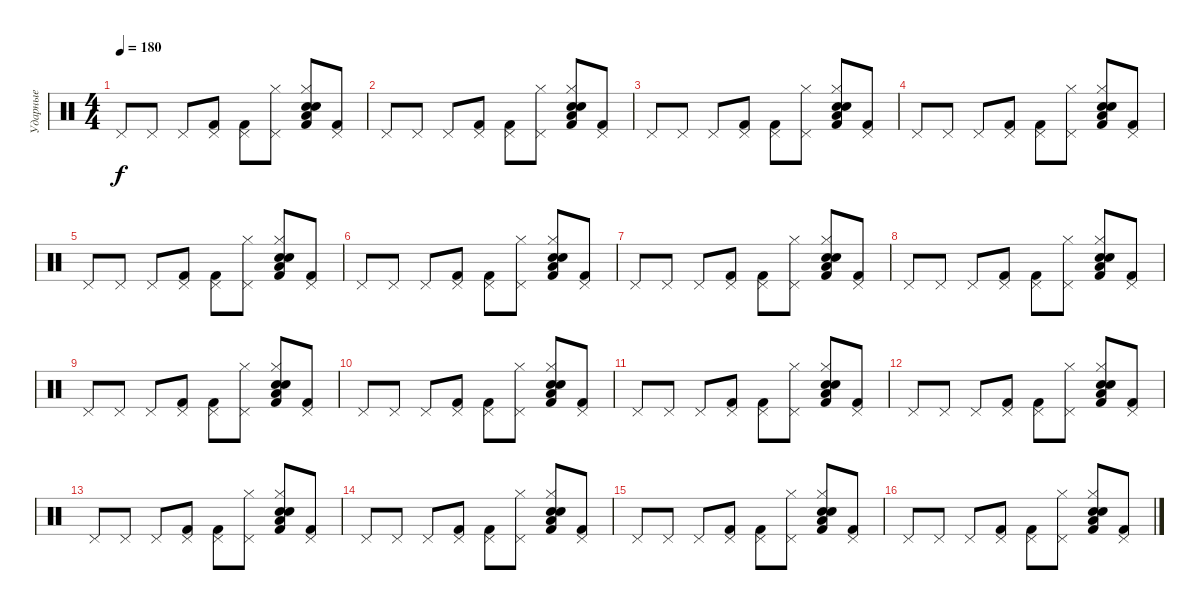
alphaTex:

\track ("Ударные" "Ударные") {instrument percussion}
\staff {score}
\articulation defaults
\ts (4 4)
\tempo 180
\clef neutral
\ks c "Pedal Hi-Hat (hit)".8{dy f} "Pedal Hi-Hat (hit)".8 "Pedal Hi-Hat (hit)".8
("Kick (hit) 2" "Pedal Hi-Hat (hit)").8 ("Kick (hit) 2" "Pedal Hi-Hat (hit)").8 ("Hi-Hat (closed)" "Pedal Hi-Hat (hit)").8 ("Hi-Hat (closed)" "Kick (hit) 2" "Snare (hit) 2" "Electric Snare (hit)" "Low Floor Tom (hit)").8 ("Kick (hit) 2" "Pedal Hi-Hat (hit)").8 |
"Pedal Hi-Hat (hit)".8 "Pedal Hi-Hat (hit)".8 "Pedal Hi-Hat (hit)".8 ("Kick (hit) 2" "Pedal Hi-Hat (hit)").8 ("Kick (hit) 2" "Pedal Hi-Hat (hit)").8 ("Hi-Hat (closed)" "Pedal Hi-Hat (hit)").8 ("Hi-Hat (closed)" "Kick (hit) 2" "Snare (hit) 2" "Electric Snare (hit)" "Low Floor Tom (hit)").8 ("Kick (hit) 2" "Pedal Hi-Hat (hit)").8 |
"Pedal Hi-Hat (hit)".8 "Pedal Hi-Hat (hit)".8 "Pedal Hi-Hat (hit)".8 ("Kick (hit) 2" "Pedal Hi-Hat (hit)").8 ("Kick (hit) 2" "Pedal Hi-Hat (hit)").8 ("Hi-Hat (closed)" "Pedal Hi-Hat (hit)").8 ("Hi-Hat (closed)" "Kick (hit) 2" "Snare (hit) 2" "Electric Snare (hit)" "Low Floor Tom (hit)").8 ("Kick (hit) 2" "Pedal Hi-Hat (hit)").8 |
"Pedal Hi-Hat (hit)".8 "Pedal Hi-Hat (hit)".8 "Pedal Hi-Hat (hit)".8 ("Kick (hit) 2" "Pedal Hi-Hat (hit)").8 ("Kick (hit) 2" "Pedal Hi-Hat (hit)").8 ("Hi-Hat (closed)" "Pedal Hi-Hat (hit)").8 ("Hi-Hat (closed)" "Kick (hit) 2" "Snare (hit) 2" "Electric Snare (hit)" "Low Floor Tom (hit)").8 ("Kick (hit) 2" "Pedal Hi-Hat (hit)").8 |
"Pedal Hi-Hat (hit)".8 "Pedal Hi-Hat (hit)".8 "Pedal Hi-Hat (hit)".8 ("Kick (hit) 2" "Pedal Hi-Hat (hit)").8 ("Kick (hit) 2" "Pedal Hi-Hat (hit)").8 ("Hi-Hat (closed)" "Pedal Hi-Hat (hit)").8 ("Hi-Hat (closed)" "Kick (hit) 2" "Snare (hit) 2" "Electric Snare (hit)" "Low Floor Tom (hit)").8 ("Kick (hit) 2" "Pedal Hi-Hat (hit)").8 |
"Pedal Hi-Hat (hit)".8 "Pedal Hi-Hat (hit)".8 "Pedal Hi-Hat (hit)".8 ("Kick (hit) 2" "Pedal Hi-Hat (hit)").8 ("Kick (hit) 2" "Pedal Hi-Hat (hit)").8 ("Hi-Hat (closed)" "Pedal Hi-Hat (hit)").8 ("Hi-Hat (closed)" "Kick (hit) 2" "Snare (hit) 2" "Electric Snare (hit)" "Low Floor Tom (hit)").8 ("Kick (hit) 2" "Pedal Hi-Hat (hit)").8 |
"Pedal Hi-Hat (hit)".8 "Pedal Hi-Hat (hit)".8 "Pedal Hi-Hat (hit)".8 ("Kick (hit) 2" "Pedal Hi-Hat (hit)").8 ("Kick (hit) 2" "Pedal Hi-Hat (hit)").8 ("Hi-Hat (closed)" "Pedal Hi-Hat (hit)").8 ("Hi-Hat (closed)" "Kick (hit) 2" "Snare (hit) 2" "Electric Snare (hit)" "Low Floor Tom (hit)").8 ("Kick (hit) 2" "Pedal Hi-Hat (hit)").8 |
"Pedal Hi-Hat (hit)".8 "Pedal Hi-Hat (hit)".8 "Pedal Hi-Hat (hit)".8 ("Kick (hit) 2" "Pedal Hi-Hat (hit)").8 ("Kick (hit) 2" "Pedal Hi-Hat (hit)").8 ("Hi-Hat (closed)" "Pedal Hi-Hat (hit)").8 ("Hi-Hat (closed)" "Kick (hit) 2" "Snare (hit) 2" "Electric Snare (hit)" "Low Floor Tom (hit)").8 ("Kick (hit) 2" "Pedal Hi-Hat (hit)").8 |
"Pedal Hi-Hat (hit)".8 "Pedal Hi-Hat (hit)".8 "Pedal Hi-Hat (hit)".8 ("Kick (hit) 2" "Pedal Hi-Hat (hit)").8 ("Kick (hit) 2" "Pedal Hi-Hat (hit)").8 ("Hi-Hat (closed)" "Pedal Hi-Hat (hit)").8 ("Hi-Hat (closed)" "Kick (hit) 2" "Snare (hit) 2" "Electric Snare (hit)" "Low Floor Tom (hit)").8 ("Kick (hit) 2" "Pedal Hi-Hat (hit)").8 |
"Pedal Hi-Hat (hit)".8 "Pedal Hi-Hat (hit)".8 "Pedal Hi-Hat (hit)".8 ("Kick (hit) 2" "Pedal Hi-Hat (hit)").8 ("Kick (hit) 2" "Pedal Hi-Hat (hit)").8 ("Hi-Hat (closed)" "Pedal Hi-Hat (hit)").8 ("Hi-Hat (closed)" "Kick (hit) 2" "Snare (hit) 2" "Electric Snare (hit)" "Low Floor Tom (hit)").8 ("Kick (hit) 2" "Pedal Hi-Hat (hit)").8 |
"Pedal Hi-Hat (hit)".8 "Pedal Hi-Hat (hit)".8 "Pedal Hi-Hat (hit)".8 ("Kick (hit) 2" "Pedal Hi-Hat (hit)").8 ("Kick (hit) 2" "Pedal Hi-Hat (hit)").8 ("Hi-Hat (closed)" "Pedal Hi-Hat (hit)").8 ("Hi-Hat (closed)" "Kick (hit) 2" "Snare (hit) 2" "Electric Snare (hit)" "Low Floor Tom (hit)").8 ("Kick (hit) 2" "Pedal Hi-Hat (hit)").8 |
"Pedal Hi-Hat (hit)".8 "Pedal Hi-Hat (hit)".8 "Pedal Hi-Hat (hit)".8 ("Kick (hit) 2" "Pedal Hi-Hat (hit)").8 ("Kick (hit) 2" "Pedal Hi-Hat (hit)").8 ("Hi-Hat (closed)" "Pedal Hi-Hat (hit)").8 ("Hi-Hat (closed)" "Kick (hit) 2" "Snare (hit) 2" "Electric Snare (hit)" "Low Floor Tom (hit)").8 ("Kick (hit) 2" "Pedal Hi-Hat (hit)").8 |
"Pedal Hi-Hat (hit)".8 "Pedal Hi-Hat (hit)".8 "Pedal Hi-Hat (hit)".8 ("Kick (hit) 2" "Pedal Hi-Hat (hit)").8 ("Kick (hit) 2" "Pedal Hi-Hat (hit)").8 ("Hi-Hat (closed)" "Pedal Hi-Hat (hit)").8 ("Hi-Hat (closed)" "Kick (hit) 2" "Snare (hit) 2" "Electric Snare (hit)" "Low Floor Tom (hit)").8 ("Kick (hit) 2" "Pedal Hi-Hat (hit)").8 |
"Pedal Hi-Hat (hit)".8 "Pedal Hi-Hat (hit)".8 "Pedal Hi-Hat (hit)".8 ("Kick (hit) 2" "Pedal Hi-Hat (hit)").8 ("Kick (hit) 2" "Pedal Hi-Hat (hit)").8 ("Hi-Hat (closed)" "Pedal Hi-Hat (hit)").8 ("Hi-Hat (closed)" "Kick (hit) 2" "Snare (hit) 2" "Electric Snare (hit)" "Low Floor Tom (hit)").8 ("Kick (hit) 2" "Pedal Hi-Hat (hit)").8 |
"Pedal Hi-Hat (hit)".8 "Pedal Hi-Hat (hit)".8 "Pedal Hi-Hat (hit)".8 ("Kick (hit) 2" "Pedal Hi-Hat (hit)").8 ("Kick (hit) 2" "Pedal Hi-Hat (hit)").8 ("Hi-Hat (closed)" "Pedal Hi-Hat (hit)").8 ("Hi-Hat (closed)" "Kick (hit) 2" "Snare (hit) 2" "Electric Snare (hit)" "Low Floor Tom (hit)").8 ("Kick (hit) 2" "Pedal Hi-Hat (hit)").8 |
"Pedal Hi-Hat (hit)".8 "Pedal Hi-Hat (hit)".8 "Pedal Hi-Hat (hit)".8 ("Kick (hit) 2" "Pedal Hi-Hat (hit)").8 ("Kick (hit) 2" "Pedal Hi-Hat (hit)").8 ("Hi-Hat (closed)" "Pedal Hi-Hat (hit)").8 ("Hi-Hat (closed)" "Kick (hit) 2" "Snare (hit) 2" "Electric Snare (hit)" "Low Floor Tom (hit)").8 ("Kick (hit) 2" "Pedal Hi-Hat (hit)").8
